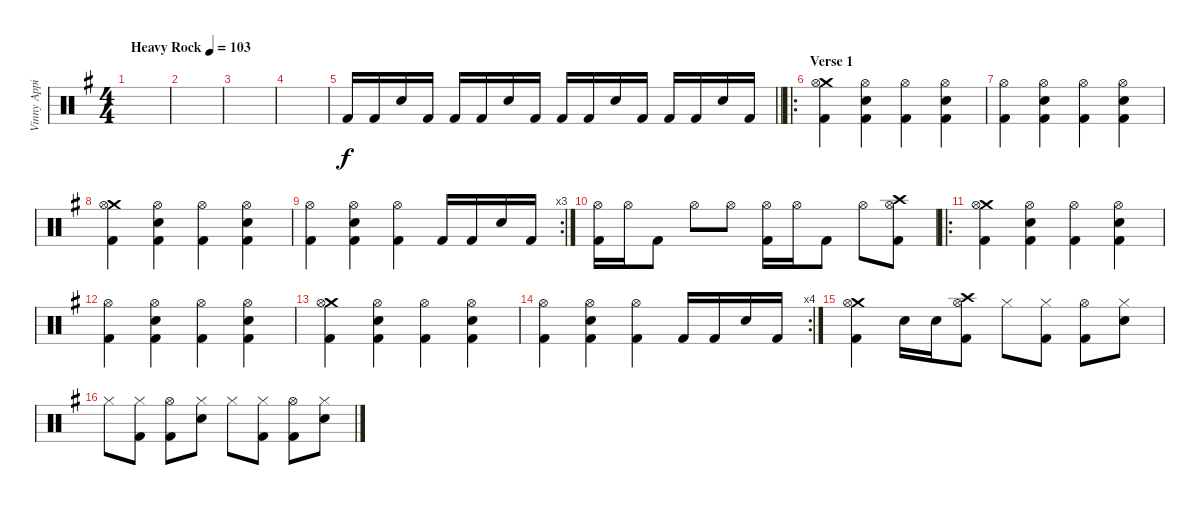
\track ("Vinny Appice" "Vinny Appi") {instrument percussion}
\staff {score}
\articulation defaults
\ts (4 4)
\tempo (103 "Heavy Rock")
\clef neutral
\ks g
|
|
|
|
\barLineRight lightlight "Kick (hit) 2".16 "Kick (hit) 2".16 "Snare (hit) 2".16 "Kick (hit) 2".16 "Kick (hit) 2".16 "Kick (hit) 2".16 "Snare (hit) 2".16 "Kick (hit) 2".16 "Kick (hit) 2".16 "Kick (hit) 2".16 "Snare (hit) 2".16 "Kick (hit) 2".16 "Kick (hit) 2".16 "Kick (hit) 2".16 "Snare (hit) 2".16 "Kick (hit) 2".16
|
\ro
\section ("" "Verse 1")
("Crash medium (hit)" "Hi-Hat (open)" "Kick (hit) 2").4 ("Hi-Hat (open)" "Snare (hit) 2" "Kick (hit) 2").4 ("Hi-Hat (open)" "Kick (hit) 2").4 ("Hi-Hat (open)" "Snare (hit) 2" "Kick (hit) 2").4 |
("Hi-Hat (open)" "Kick (hit) 2").4 ("Hi-Hat (open)" "Snare (hit) 2" "Kick (hit) 2").4 ("Hi-Hat (open)" "Kick (hit) 2").4 ("Hi-Hat (open)" "Snare (hit) 2" "Kick (hit) 2").4 |
("Crash medium (hit)" "Hi-Hat (open)" "Kick (hit) 2").4 ("Hi-Hat (open)" "Snare (hit) 2" "Kick (hit) 2").4 ("Hi-Hat (open)" "Kick (hit) 2").4 ("Hi-Hat (open)" "Snare (hit) 2" "Kick (hit) 2").4 |
\rc 3
("Hi-Hat (open)" "Kick (hit) 2").4 ("Hi-Hat (open)" "Snare (hit) 2" "Kick (hit) 2").4 ("Hi-Hat (open)" "Kick (hit) 2").4 "Kick (hit) 2".16 "Kick (hit) 2".16 "Snare (hit) 2".16 "Kick (hit) 2".16 |
("Hi-Hat (open)" "Kick (hit) 2").16 "Hi-Hat (open)".16 "Kick (hit) 2".8 "Hi-Hat (open)".8 "Hi-Hat (open)".8 ("Hi-Hat (open)" "Kick (hit) 2").16 "Hi-Hat (open)".16 "Kick (hit) 2".8 "Hi-Hat (open)".8 ("Crash high (hit)" "Hi-Hat (open)" "Kick (hit) 2").8 |
\ro
("Crash medium (hit)" "Hi-Hat (open)" "Kick (hit) 2").4 ("Hi-Hat (open)" "Snare (hit) 2" "Kick (hit) 2").4 ("Hi-Hat (open)" "Kick (hit) 2").4 ("Hi-Hat (open)" "Snare (hit) 2" "Kick (hit) 2").4 |
("Hi-Hat (open)" "Kick (hit) 2").4 ("Hi-Hat (open)" "Snare (hit) 2" "Kick (hit) 2").4 ("Hi-Hat (open)" "Kick (hit) 2").4 ("Hi-Hat (open)" "Snare (hit) 2" "Kick (hit) 2").4 |
("Crash medium (hit)" "Hi-Hat (open)" "Kick (hit) 2").4 ("Hi-Hat (open)" "Snare (hit) 2" "Kick (hit) 2").4 ("Hi-Hat (open)" "Kick (hit) 2").4 ("Hi-Hat (open)" "Snare (hit) 2" "Kick (hit) 2").4 |
\rc 4
("Hi-Hat (open)" "Kick (hit) 2").4 ("Hi-Hat (open)" "Snare (hit) 2" "Kick (hit) 2").4 ("Hi-Hat (open)" "Kick (hit) 2").4 "Kick (hit) 2".16 "Kick (hit) 2".16 "Snare (hit) 2".16 "Kick (hit) 2".16 |
("Crash medium (hit)" "Hi-Hat (open)" "Kick (hit) 2").4 "Snare (hit) 2".16 "Snare (hit) 2".16 ("Crash high (hit)" "Hi-Hat (open)" "Kick (hit) 2").8 "Hi-Hat (closed)".8 ("Hi-Hat (closed)" "Kick (hit) 2").8 ("Hi-Hat (open)" "Kick (hit) 2").8 ("Hi-Hat (closed)" "Snare (hit) 2").8 |
"Hi-Hat (closed)".8 ("Hi-Hat (closed)" "Kick (hit) 2").8 ("Hi-Hat (open)" "Kick (hit) 2").8 ("Hi-Hat (closed)" "Snare (hit) 2").8 "Hi-Hat (closed)".8 ("Hi-Hat (closed)" "Kick (hit) 2").8 ("Hi-Hat (open)" "Kick (hit) 2").8 ("Hi-Hat (closed)" "Snare (hit) 2").8
